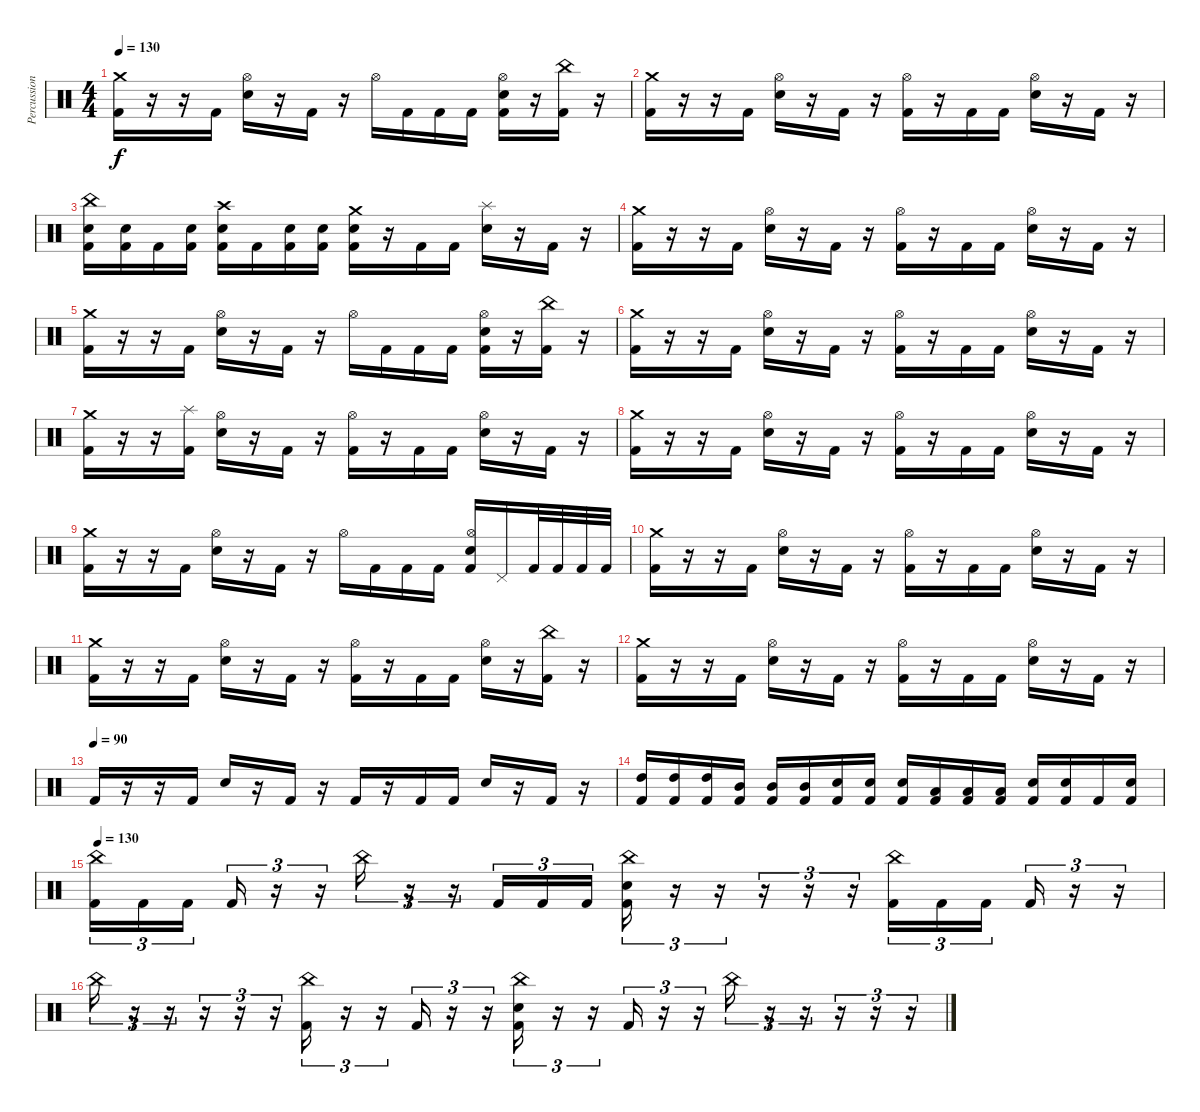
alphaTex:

\track ("Percussion" "Percussion") {instrument percussion}
\staff {score}
\articulation defaults
\ts (4 4)
\tempo 130
\clef neutral
\ks c
("Crash medium (hit)" "Kick (hit) 2").16{dy f} r.16 r.16 "Kick (hit) 2".16 ("Hi-Hat (open)" "Electric Snare (hit)").16 r.16 "Kick (hit) 2".16 r.16 "Hi-Hat (open)".16 "Kick (hit) 2".16 "Kick (hit) 2".16 "Kick (hit) 2".16 ("Hi-Hat (open)" "Electric Snare (hit)" "Kick (hit) 2").16 r.16 ("China (hit)" "Kick (hit) 2").16 r.16 |
("Crash medium (hit)" "Kick (hit) 2").16 r.16 r.16 "Kick (hit) 2".16 ("Hi-Hat (open)" "Electric Snare (hit)").16 r.16 "Kick (hit) 2".16 r.16 ("Hi-Hat (open)" "Kick (hit) 2").16 r.16 "Kick (hit) 2".16 "Kick (hit) 2".16 ("Hi-Hat (open)" "Electric Snare (hit)").16 r.16 "Kick (hit) 2".16 r.16 |
("China (hit)" "Electric Snare (hit)" "Kick (hit) 2").16 ("Electric Snare (hit)" "Kick (hit) 2").16 "Kick (hit) 2".16 ("Electric Snare (hit)" "Kick (hit) 2").16 ("Crash high (hit)" "Electric Snare (hit)" "Kick (hit) 2").16 "Kick (hit) 2".16 ("Electric Snare (hit)" "Kick (hit) 2").16 ("Electric Snare (hit)" "Kick (hit) 2").16 ("Crash medium (hit)" "Electric Snare (hit)" "Kick (hit) 2").16 r.16 "Kick (hit) 2".16 "Kick (hit) 2".16 ("Splash (hit)" "Electric Snare (hit)").16 r.16 "Kick (hit) 2".16 r.16 |
("Crash medium (hit)" "Kick (hit) 2").16 r.16 r.16 "Kick (hit) 2".16 ("Hi-Hat (open)" "Electric Snare (hit)").16 r.16 "Kick (hit) 2".16 r.16 ("Hi-Hat (open)" "Kick (hit) 2").16 r.16 "Kick (hit) 2".16 "Kick (hit) 2".16 ("Hi-Hat (open)" "Electric Snare (hit)").16 r.16 "Kick (hit) 2".16 r.16 |
("Crash medium (hit)" "Kick (hit) 2").16 r.16 r.16 "Kick (hit) 2".16 ("Hi-Hat (open)" "Electric Snare (hit)").16 r.16 "Kick (hit) 2".16 r.16 "Hi-Hat (open)".16 "Kick (hit) 2".16 "Kick (hit) 2".16 "Kick (hit) 2".16 ("Hi-Hat (open)" "Electric Snare (hit)" "Kick (hit) 2").16 r.16 ("China (hit)" "Kick (hit) 2").16 r.16 |
("Crash medium (hit)" "Kick (hit) 2").16 r.16 r.16 "Kick (hit) 2".16 ("Hi-Hat (open)" "Electric Snare (hit)").16 r.16 "Kick (hit) 2".16 r.16 ("Hi-Hat (open)" "Kick (hit) 2").16 r.16 "Kick (hit) 2".16 "Kick (hit) 2".16 ("Hi-Hat (open)" "Electric Snare (hit)").16 r.16 "Kick (hit) 2".16 r.16 |
("Crash medium (hit)" "Kick (hit) 2").16 r.16 r.16 ("Splash (hit)" "Kick (hit) 2").16 ("Hi-Hat (open)" "Electric Snare (hit)").16 r.16 "Kick (hit) 2".16 r.16 ("Hi-Hat (open)" "Kick (hit) 2").16 r.16 "Kick (hit) 2".16 "Kick (hit) 2".16 ("Hi-Hat (open)" "Electric Snare (hit)").16 r.16 "Kick (hit) 2".16 r.16 |
("Crash medium (hit)" "Kick (hit) 2").16 r.16 r.16 "Kick (hit) 2".16 ("Hi-Hat (open)" "Electric Snare (hit)").16 r.16 "Kick (hit) 2".16 r.16 ("Hi-Hat (open)" "Kick (hit) 2").16 r.16 "Kick (hit) 2".16 "Kick (hit) 2".16 ("Hi-Hat (open)" "Electric Snare (hit)").16 r.16 "Kick (hit) 2".16 r.16 |
("Crash medium (hit)" "Kick (hit) 2").16 r.16 r.16 "Kick (hit) 2".16 ("Hi-Hat (open)" "Electric Snare (hit)").16 r.16 "Kick (hit) 2".16 r.16 "Hi-Hat (open)".16 "Kick (hit) 2".16 "Kick (hit) 2".16 "Kick (hit) 2".16 ("Hi-Hat (open)" "Electric Snare (hit)" "Kick (hit) 2").16 "Pedal Hi-Hat (hit)".16 "Kick (hit) 2".32 "Kick (hit) 2".32 "Kick (hit) 2".32 "Kick (hit) 2".32 |
("Crash medium (hit)" "Kick (hit) 2").16 r.16 r.16 "Kick (hit) 2".16 ("Hi-Hat (open)" "Electric Snare (hit)").16 r.16 "Kick (hit) 2".16 r.16 ("Hi-Hat (open)" "Kick (hit) 2").16 r.16 "Kick (hit) 2".16 "Kick (hit) 2".16 ("Hi-Hat (open)" "Electric Snare (hit)").16 r.16 "Kick (hit) 2".16 r.16 |
("Crash medium (hit)" "Kick (hit) 2").16 r.16 r.16 "Kick (hit) 2".16 ("Hi-Hat (open)" "Electric Snare (hit)").16 r.16 "Kick (hit) 2".16 r.16 ("Hi-Hat (open)" "Kick (hit) 2").16 r.16 "Kick (hit) 2".16 "Kick (hit) 2".16 ("Hi-Hat (open)" "Electric Snare (hit)").16 r.16 ("China (hit)" "Kick (hit) 2").16 r.16 |
("Crash medium (hit)" "Kick (hit) 2").16 r.16 r.16 "Kick (hit) 2".16 ("Hi-Hat (open)" "Electric Snare (hit)").16 r.16 "Kick (hit) 2".16 r.16 ("Hi-Hat (open)" "Kick (hit) 2").16 r.16 "Kick (hit) 2".16 "Kick (hit) 2".16 ("Hi-Hat (open)" "Electric Snare (hit)").16 r.16 "Kick (hit) 2".16 r.16 |
\tempo (90)
"Kick (hit) 2".16 r.16 r.16 "Kick (hit) 2".16 "Electric Snare (hit)".16 r.16 "Kick (hit) 2".16 r.16 "Kick (hit) 2".16 r.16 "Kick (hit) 2".16 "Kick (hit) 2".16 "Electric Snare (hit)".16 r.16 "Kick (hit) 2".16 r.16 |
("High Tom (hit)" "Kick (hit) 2").16 ("High Tom (hit)" "Kick (hit) 2").16 ("High Tom (hit)" "Kick (hit) 2").16 ("Mid Tom (hit)" "Kick (hit) 2").16 ("Mid Tom (hit)" "Kick (hit) 2").16 ("Mid Tom (hit)" "Kick (hit) 2").16 ("Electric Snare (hit)" "Kick (hit) 2").16 ("Electric Snare (hit)" "Kick (hit) 2").16 ("Electric Snare (hit)" "Kick (hit) 2").16 ("Low Tom (hit)" "Kick (hit) 2").16 ("Low Tom (hit)" "Kick (hit) 2").16 ("Low Tom (hit)" "Kick (hit) 2").16 ("Electric Snare (hit)" "Kick (hit) 2").16 ("Electric Snare (hit)" "Kick (hit) 2").16 "Kick (hit) 2".16 ("Electric Snare (hit)" "Kick (hit) 2").16 |
\tempo 130
("China (hit)" "Kick (hit) 2").16{tu (3 2)} "Kick (hit) 2".16{tu (3 2)} "Kick (hit) 2".16{tu (3 2) beam splitsecondary} "Kick (hit) 2".16{tu (3 2)} r.16{tu (3 2)} r.16{tu (3 2)} "China (hit)".16{tu (3 2)} r.16{tu (3 2)} r.16{tu (3 2)} "Kick (hit) 2".16{tu (3 2)} "Kick (hit) 2".16{tu (3 2)} "Kick (hit) 2".16{tu (3 2)} ("China (hit)" "Electric Snare (hit)" "Kick (hit) 2").16{tu (3 2)} r.16{tu (3 2)} r.16{tu (3 2)} r.16{tu (3 2)} r.16{tu (3 2)} r.16{tu (3 2)} ("China (hit)" "Kick (hit) 2").16{tu (3 2)} "Kick (hit) 2".16{tu (3 2)} "Kick (hit) 2".16{tu (3 2) beam splitsecondary} "Kick (hit) 2".16{tu (3 2)} r.16{tu (3 2)} r.16{tu (3 2)} |
"China (hit)".16{tu (3 2)} r.16{tu (3 2)} r.16{tu (3 2)} r.16{tu (3 2)} r.16{tu (3 2)} r.16{tu (3 2)} ("China (hit)" "Kick (hit) 2").16{tu (3 2)} r.16{tu (3 2)} r.16{tu (3 2)} "Kick (hit) 2".16{tu (3 2)} r.16{tu (3 2)} r.16{tu (3 2)} ("China (hit)" "Electric Snare (hit)" "Kick (hit) 2").16{tu (3 2)} r.16{tu (3 2)} r.16{tu (3 2)} "Kick (hit) 2".16{tu (3 2)} r.16{tu (3 2)} r.16{tu (3 2)} "China (hit)".16{tu (3 2)} r.16{tu (3 2)} r.16{tu (3 2)} r.16{tu (3 2)} r.16{tu (3 2)} r.16{tu (3 2)}
